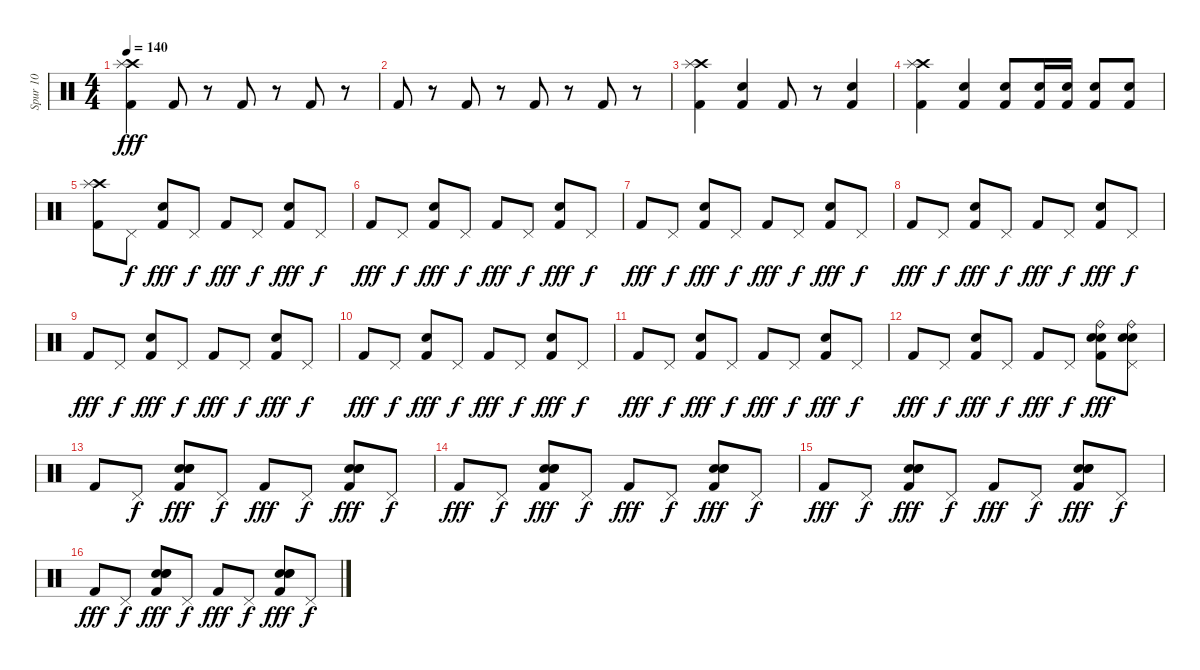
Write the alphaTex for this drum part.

\track ("Spur 10" "Spur 10") {instrument percussion}
\staff {score}
\articulation defaults
\ts (4 4)
\tempo 140
\clef neutral
\ks c
("Crash high (hit)" "Splash (hit)" "Kick (hit) 2").4{dy fff} "Kick (hit) 2".8 r.8 "Kick (hit) 2".8 r.8 "Kick (hit) 2".8 r.8 |
"Kick (hit) 2".8 r.8 "Kick (hit) 2".8 r.8 "Kick (hit) 2".8 r.8 "Kick (hit) 2".8 r.8 |
("Crash high (hit)" "Splash (hit)" "Kick (hit) 2").4 ("Snare (hit) 2" "Kick (hit) 2").4 "Kick (hit) 2".8 r.8 ("Snare (hit) 2" "Kick (hit) 2").4 |
("Crash high (hit)" "Splash (hit)" "Kick (hit) 2").4 ("Snare (hit) 2" "Kick (hit) 2").4 ("Snare (hit) 2" "Kick (hit) 2").8 ("Snare (hit) 2" "Kick (hit) 2").16 ("Snare (hit) 2" "Kick (hit) 2").16 ("Snare (hit) 2" "Kick (hit) 2").8 ("Snare (hit) 2" "Kick (hit) 2").8 |
("Crash high (hit)" "Splash (hit)" "Kick (hit) 2").8 "Pedal Hi-Hat (hit)".8{dy f} ("Snare (hit) 2" "Kick (hit) 2").8{dy fff} "Pedal Hi-Hat (hit)".8{dy f} "Kick (hit) 2".8{dy fff} "Pedal Hi-Hat (hit)".8{dy f} ("Snare (hit) 2" "Kick (hit) 2").8{dy fff} "Pedal Hi-Hat (hit)".8{dy f} |
"Kick (hit) 2".8{dy fff} "Pedal Hi-Hat (hit)".8{dy f} ("Snare (hit) 2" "Kick (hit) 2").8{dy fff} "Pedal Hi-Hat (hit)".8{dy f} "Kick (hit) 2".8{dy fff} "Pedal Hi-Hat (hit)".8{dy f} ("Snare (hit) 2" "Kick (hit) 2").8{dy fff} "Pedal Hi-Hat (hit)".8{dy f} |
"Kick (hit) 2".8{dy fff} "Pedal Hi-Hat (hit)".8{dy f} ("Snare (hit) 2" "Kick (hit) 2").8{dy fff} "Pedal Hi-Hat (hit)".8{dy f} "Kick (hit) 2".8{dy fff} "Pedal Hi-Hat (hit)".8{dy f} ("Snare (hit) 2" "Kick (hit) 2").8{dy fff} "Pedal Hi-Hat (hit)".8{dy f} |
"Kick (hit) 2".8{dy fff} "Pedal Hi-Hat (hit)".8{dy f} ("Snare (hit) 2" "Kick (hit) 2").8{dy fff} "Pedal Hi-Hat (hit)".8{dy f} "Kick (hit) 2".8{dy fff} "Pedal Hi-Hat (hit)".8{dy f} ("Snare (hit) 2" "Kick (hit) 2").8{dy fff} "Pedal Hi-Hat (hit)".8{dy f} |
"Kick (hit) 2".8{dy fff} "Pedal Hi-Hat (hit)".8{dy f} ("Snare (hit) 2" "Kick (hit) 2").8{dy fff} "Pedal Hi-Hat (hit)".8{dy f} "Kick (hit) 2".8{dy fff} "Pedal Hi-Hat (hit)".8{dy f} ("Snare (hit) 2" "Kick (hit) 2").8{dy fff} "Pedal Hi-Hat (hit)".8{dy f} |
"Kick (hit) 2".8{dy fff} "Pedal Hi-Hat (hit)".8{dy f} ("Snare (hit) 2" "Kick (hit) 2").8{dy fff} "Pedal Hi-Hat (hit)".8{dy f} "Kick (hit) 2".8{dy fff} "Pedal Hi-Hat (hit)".8{dy f} ("Snare (hit) 2" "Kick (hit) 2").8{dy fff} "Pedal Hi-Hat (hit)".8{dy f} |
"Kick (hit) 2".8{dy fff} "Pedal Hi-Hat (hit)".8{dy f} ("Snare (hit) 2" "Kick (hit) 2").8{dy fff} "Pedal Hi-Hat (hit)".8{dy f} "Kick (hit) 2".8{dy fff} "Pedal Hi-Hat (hit)".8{dy f} ("Snare (hit) 2" "Kick (hit) 2").8{dy fff} "Pedal Hi-Hat (hit)".8{dy f} |
"Kick (hit) 2".8{dy fff} "Pedal Hi-Hat (hit)".8{dy f} ("Snare (hit) 2" "Kick (hit) 2").8{dy fff} "Pedal Hi-Hat (hit)".8{dy f} "Kick (hit) 2".8{dy fff} "Pedal Hi-Hat (hit)".8{dy f} ("Electric Snare (hit)" "Ride (bell)" "Snare (hit) 2" "Kick (hit) 2").8{dy fff} ("Electric Snare (hit)" "Pedal Hi-Hat (hit)" "Ride (bell)" "Snare (hit) 2").8 |
"Kick (hit) 2".8 "Pedal Hi-Hat (hit)".8{dy f} ("Hand Clap (hit)" "Electric Snare (hit)" "Snare (hit) 2" "Kick (hit) 2").8{dy fff} "Pedal Hi-Hat (hit)".8{dy f} "Kick (hit) 2".8{dy fff} "Pedal Hi-Hat (hit)".8{dy f} ("Hand Clap (hit)" "Electric Snare (hit)" "Snare (hit) 2" "Kick (hit) 2").8{dy fff} "Pedal Hi-Hat (hit)".8{dy f} |
"Kick (hit) 2".8{dy fff} "Pedal Hi-Hat (hit)".8{dy f} ("Electric Snare (hit)" "Hand Clap (hit)" "Snare (hit) 2" "Kick (hit) 2").8{dy fff} "Pedal Hi-Hat (hit)".8{dy f} "Kick (hit) 2".8{dy fff} "Pedal Hi-Hat (hit)".8{dy f} ("Hand Clap (hit)" "Electric Snare (hit)" "Snare (hit) 2" "Kick (hit) 2").8{dy fff} "Pedal Hi-Hat (hit)".8{dy f} |
"Kick (hit) 2".8{dy fff} "Pedal Hi-Hat (hit)".8{dy f} ("Hand Clap (hit)" "Electric Snare (hit)" "Snare (hit) 2" "Kick (hit) 2").8{dy fff} "Pedal Hi-Hat (hit)".8{dy f} "Kick (hit) 2".8{dy fff} "Pedal Hi-Hat (hit)".8{dy f} ("Hand Clap (hit)" "Electric Snare (hit)" "Snare (hit) 2" "Kick (hit) 2").8{dy fff} "Pedal Hi-Hat (hit)".8{dy f} |
"Kick (hit) 2".8{dy fff} "Pedal Hi-Hat (hit)".8{dy f} ("Electric Snare (hit)" "Hand Clap (hit)" "Snare (hit) 2" "Kick (hit) 2").8{dy fff} "Pedal Hi-Hat (hit)".8{dy f} "Kick (hit) 2".8{dy fff} "Pedal Hi-Hat (hit)".8{dy f} ("Hand Clap (hit)" "Electric Snare (hit)" "Snare (hit) 2" "Kick (hit) 2").8{dy fff} "Pedal Hi-Hat (hit)".8{dy f}
